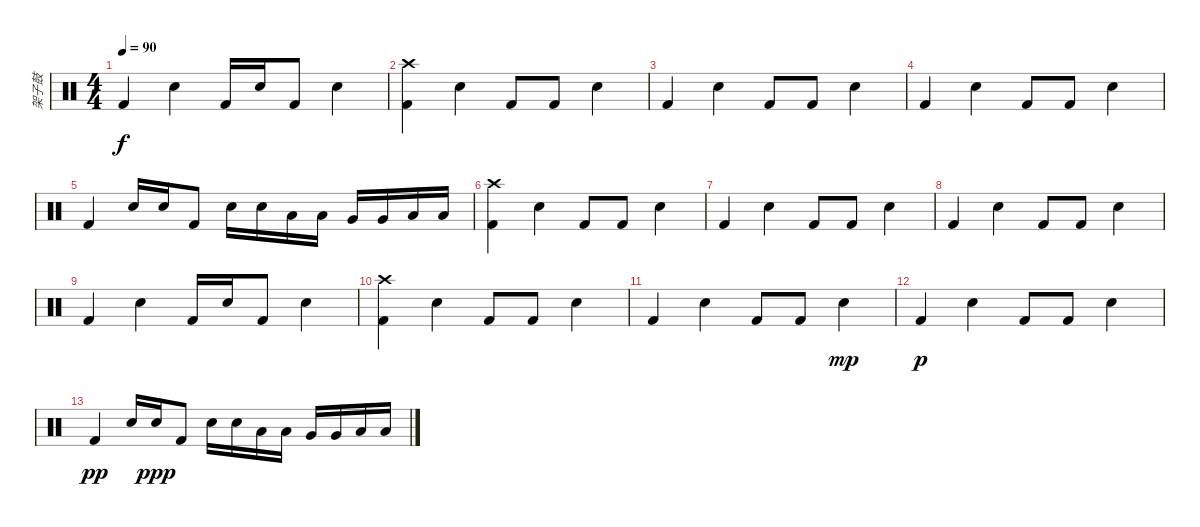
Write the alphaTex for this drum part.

\track ("架子鼓" "架子鼓") {instrument percussion}
\staff {score}
\articulation defaults
\ts (4 4)
\tempo 90
\clef neutral
\ks c "Kick (hit) 2".4{dy f} "Electric Snare (hit)".4 "Kick (hit) 2".16 "Electric Snare (hit)".16 "Kick (hit) 2".8 "Electric Snare (hit)".4
|
("Kick (hit) 2" "Crash high (hit)").4 "Electric Snare (hit)".4 "Kick (hit) 2".8 "Kick (hit) 2".8 "Electric Snare (hit)".4 |
"Kick (hit) 2".4 "Electric Snare (hit)".4 "Kick (hit) 2".8 "Kick (hit) 2".8 "Electric Snare (hit)".4 |
"Kick (hit) 2".4 "Electric Snare (hit)".4 "Kick (hit) 2".8 "Kick (hit) 2".8 "Electric Snare (hit)".4 |
"Kick (hit) 2".4 "Electric Snare (hit)".16 "Electric Snare (hit)".16 "Kick (hit) 2".8 "Electric Snare (hit)".16 "Electric Snare (hit)".16 "Low Tom (hit)".16 "Low Tom (hit)".16 "Very Low Tom (hit)".16 "Very Low Tom (hit)".16 "Low Floor Tom (hit)".16 "Low Floor Tom (hit)".16 |
("Kick (hit) 2" "Crash high (hit)").4 "Electric Snare (hit)".4 "Kick (hit) 2".8 "Kick (hit) 2".8 "Electric Snare (hit)".4 |
"Kick (hit) 2".4 "Electric Snare (hit)".4 "Kick (hit) 2".8 "Kick (hit) 2".8 "Electric Snare (hit)".4 |
"Kick (hit) 2".4 "Electric Snare (hit)".4 "Kick (hit) 2".8 "Kick (hit) 2".8 "Electric Snare (hit)".4 |
"Kick (hit) 2".4 "Electric Snare (hit)".4 "Kick (hit) 2".16 "Electric Snare (hit)".16 "Kick (hit) 2".8 "Electric Snare (hit)".4 |
("Kick (hit) 2" "Crash high (hit)").4 "Electric Snare (hit)".4 "Kick (hit) 2".8 "Kick (hit) 2".8 "Electric Snare (hit)".4 |
"Kick (hit) 2".4 "Electric Snare (hit)".4 "Kick (hit) 2".8 "Kick (hit) 2".8 "Electric Snare (hit)".4{dy mp} |
"Kick (hit) 2".4{dy p} "Electric Snare (hit)".4 "Kick (hit) 2".8 "Kick (hit) 2".8 "Electric Snare (hit)".4 |
"Kick (hit) 2".4{dy pp} "Electric Snare (hit)".16 "Electric Snare (hit)".16{dy ppp} "Kick (hit) 2".8 "Electric Snare (hit)".16 "Electric Snare (hit)".16 "Low Tom (hit)".16 "Low Tom (hit)".16 "Very Low Tom (hit)".16 "Very Low Tom (hit)".16 "Low Floor Tom (hit)".16 "Low Floor Tom (hit)".16
